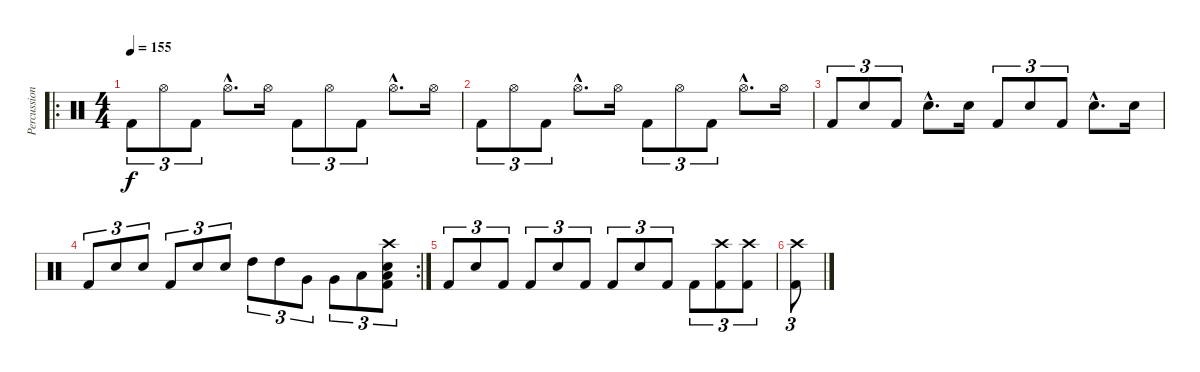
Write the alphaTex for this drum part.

\track ("Percussion" "Percussion") {instrument percussion}
\staff {score}
\articulation defaults
\ro
\ts (4 4)
\tempo 155
\clef neutral
\ks c "Kick (hit) 2".8{tu (3 2) dy f} "Hi-Hat (open)".8{tu (3 2)} "Kick (hit) 2".8{tu (3 2)} "Hi-Hat (open)"{hac}.8{d} "Hi-Hat (open)".16 "Kick (hit) 2".8{tu (3 2)} "Hi-Hat (open)".8{tu (3 2)} "Kick (hit) 2".8{tu (3 2)} "Hi-Hat (open)"{hac}.8{d} "Hi-Hat (open)".16
|
"Kick (hit) 2".8{tu (3 2)} "Hi-Hat (open)".8{tu (3 2)} "Kick (hit) 2".8{tu (3 2)} "Hi-Hat (open)"{hac}.8{d} "Hi-Hat (open)".16 "Kick (hit) 2".8{tu (3 2)} "Hi-Hat (open)".8{tu (3 2)} "Kick (hit) 2".8{tu (3 2)} "Hi-Hat (open)"{hac}.8{d} "Hi-Hat (open)".16 |
"Kick (hit) 2".8{tu (3 2)} "Electric Snare (hit)".8{tu (3 2)} "Kick (hit) 2".8{tu (3 2)} "Electric Snare (hit)"{hac}.8{d} "Electric Snare (hit)".16 "Kick (hit) 2".8{tu (3 2)} "Electric Snare (hit)".8{tu (3 2)} "Kick (hit) 2".8{tu (3 2)} "Electric Snare (hit)"{hac}.8{d} "Electric Snare (hit)".16 |
\rc 2 "Kick (hit) 2".8{tu (3 2)} "Electric Snare (hit)".8{tu (3 2)} "Electric Snare (hit)".8{tu (3 2)} "Kick (hit) 2".8{tu (3 2)} "Electric Snare (hit)".8{tu (3 2)} "Electric Snare (hit)".8{tu (3 2)} "High Tom (hit)".8{tu (3 2)} "High Tom (hit)".8{tu (3 2)} "Very Low Tom (hit)".8{tu (3 2)} "Very Low Tom (hit)".8{tu (3 2)} "Low Floor Tom (hit)".8{tu (3 2)}
("Crash high (hit)" "Electric Snare (hit)" "Low Floor Tom (hit)" "Kick (hit) 2").8{tu (3 2)} |
"Kick (hit) 2".8{tu (3 2)} "Snare (hit) 2".8{tu (3 2)} "Kick (hit) 2".8{tu (3 2)} "Kick (hit) 2".8{tu (3 2)} "Snare (hit) 2".8{tu (3 2)} "Kick (hit) 2".8{tu (3 2)} "Kick (hit) 2".8{tu (3 2)} "Snare (hit) 2".8{tu (3 2)} "Kick (hit) 2".8{tu (3 2)} "Kick (hit) 2".8{tu (3 2)} ("Kick (hit) 2" "Crash high (hit)").8{tu (3 2)} ("Kick (hit) 2" "Crash high (hit)").8{tu (3 2)} |
("Kick (hit) 2" "Crash high (hit)").8{tu (3 2)}
